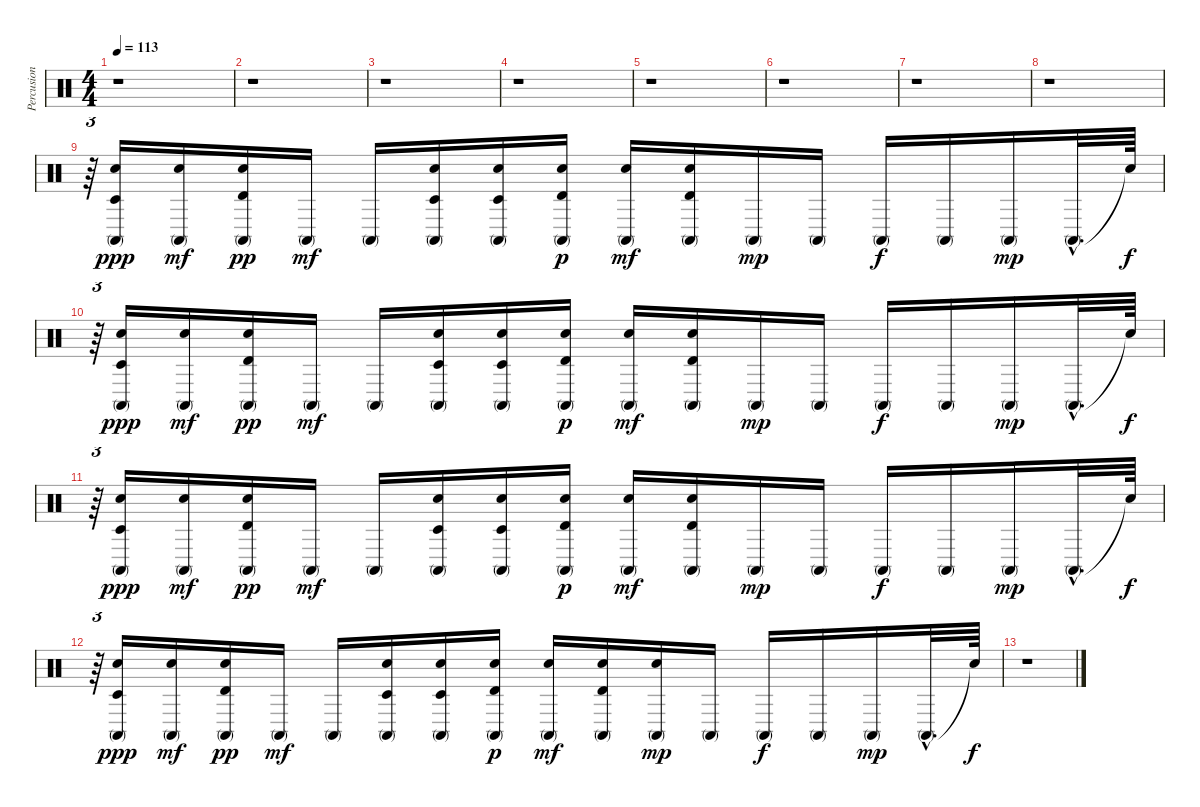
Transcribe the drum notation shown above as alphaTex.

\track ("Percusion" "Percusion") {instrument percussion}
\staff {score}
\articulation defaults
\ts (4 4)
\tempo 113
\clef neutral
\ks c
r.1{dy ff} |
r.1 |
r.1 |
r.1 |
r.1 |
r.1 |
r.1 |
r.1 |
r.64{tu (3 2)} ("Electric Snare (hit)" "Timbale low (hit)" "Conga high (mute)").16{dy ppp} ("Electric Snare (hit)" "Conga high (mute)").16{dy mf} ("Electric Snare (hit)" "Timbale high (hit)" "Conga high (mute)").16{dy pp} "Conga high (mute)".16{dy mf} "Conga high (mute)".16 ("Electric Snare (hit)" "Timbale low (hit)" "Conga high (mute)").16 ("Electric Snare (hit)" "Timbale low (hit)" "Conga high (mute)").16 ("Electric Snare (hit)" "Timbale high (hit)" "Conga high (mute)").16{dy p} ("Electric Snare (hit)" "Conga high (mute)").16{dy mf} ("Electric Snare (hit)" "Timbale high (hit)" "Conga high (mute)").16 "Conga high (mute)".16{dy mp} "Conga high (mute)".16 "Conga high (mute)".16{dy f} "Conga high (mute)".16 "Conga high (mute)".16{dy mp} "Conga high (mute)"{hac}.32{d} "Snare (hit)"{t}.64{dy f} |
r.64{tu (3 2)} ("Electric Snare (hit)" "Timbale low (hit)" "Conga high (mute)").16{dy ppp} ("Electric Snare (hit)" "Conga high (mute)").16{dy mf} ("Electric Snare (hit)" "Timbale high (hit)" "Conga high (mute)").16{dy pp} "Conga high (mute)".16{dy mf} "Conga high (mute)".16 ("Electric Snare (hit)" "Timbale low (hit)" "Conga high (mute)").16 ("Electric Snare (hit)" "Timbale low (hit)" "Conga high (mute)").16 ("Electric Snare (hit)" "Timbale high (hit)" "Conga high (mute)").16{dy p} ("Electric Snare (hit)" "Conga high (mute)").16{dy mf} ("Electric Snare (hit)" "Timbale high (hit)" "Conga high (mute)").16 "Conga high (mute)".16{dy mp} "Conga high (mute)".16 "Conga high (mute)".16{dy f} "Conga high (mute)".16 "Conga high (mute)".16{dy mp} "Conga high (mute)"{hac}.32{d} "Snare (hit)"{t}.64{dy f} |
r.64{tu (3 2)} ("Electric Snare (hit)" "Timbale low (hit)" "Conga high (mute)").16{dy ppp} ("Electric Snare (hit)" "Conga high (mute)").16{dy mf} ("Electric Snare (hit)" "Timbale high (hit)" "Conga high (mute)").16{dy pp} "Conga high (mute)".16{dy mf} "Conga high (mute)".16 ("Electric Snare (hit)" "Timbale low (hit)" "Conga high (mute)").16 ("Electric Snare (hit)" "Timbale low (hit)" "Conga high (mute)").16 ("Electric Snare (hit)" "Timbale high (hit)" "Conga high (mute)").16{dy p} ("Electric Snare (hit)" "Conga high (mute)").16{dy mf} ("Electric Snare (hit)" "Timbale high (hit)" "Conga high (mute)").16 "Conga high (mute)".16{dy mp} "Conga high (mute)".16 "Conga high (mute)".16{dy f} "Conga high (mute)".16 "Conga high (mute)".16{dy mp} "Conga high (mute)"{hac}.32{d} "Snare (hit)"{t}.64{dy f} |
r.64{tu (3 2)} ("Electric Snare (hit)" "Timbale low (hit)" "Conga high (mute)").16{dy ppp} ("Electric Snare (hit)" "Conga high (mute)").16{dy mf} ("Electric Snare (hit)" "Timbale high (hit)" "Conga high (mute)").16{dy pp} "Conga high (mute)".16{dy mf} "Conga high (mute)".16 ("Electric Snare (hit)" "Timbale low (hit)" "Conga high (mute)").16 ("Electric Snare (hit)" "Timbale low (hit)" "Conga high (mute)").16 ("Electric Snare (hit)" "Timbale high (hit)" "Conga high (mute)").16{dy p} ("Electric Snare (hit)" "Conga high (mute)").16{dy mf} ("Electric Snare (hit)" "Timbale high (hit)" "Conga high (mute)").16 ("Electric Snare (hit)" "Conga high (mute)").16{dy mp} "Conga high (mute)".16 "Conga high (mute)".16{dy f} "Conga high (mute)".16 "Conga high (mute)".16{dy mp} "Conga high (mute)"{hac}.32{d} "Snare (hit)"{t}.64{dy f} |
r.1
